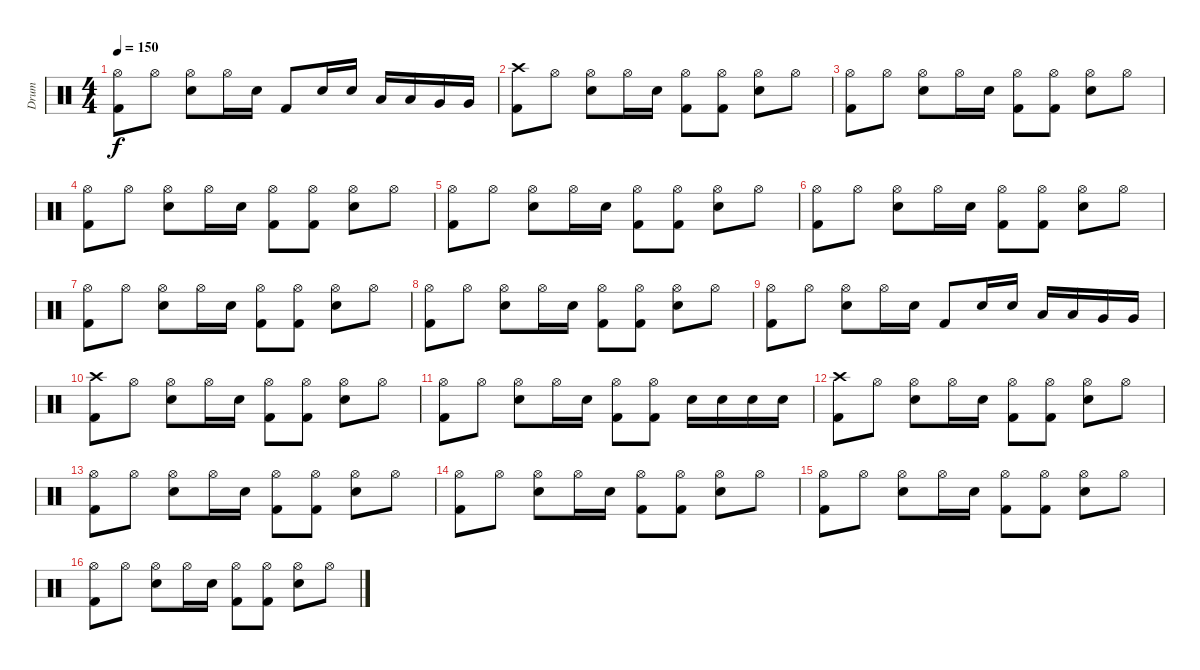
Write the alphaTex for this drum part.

\track ("Drum" "Drum") {instrument percussion}
\staff {score}
\articulation defaults
\ts (4 4)
\tempo 150
\clef neutral
\ks c
("Hi-Hat (open)" "Kick (hit) 2").8{dy f} "Hi-Hat (open)".8 ("Hi-Hat (open)" "Snare (hit) 2").8 "Hi-Hat (open)".16 "Snare (hit) 2".16 "Kick (hit) 2".8 "Snare (hit) 2".16 "Snare (hit) 2".16 "Low Tom (hit)".16 "Low Tom (hit)".16 "Very Low Tom (hit)".16 "Very Low Tom (hit)".16 |
("Crash high (hit)" "Kick (hit) 2").8 "Hi-Hat (open)".8 ("Hi-Hat (open)" "Snare (hit) 2").8 "Hi-Hat (open)".16 "Snare (hit) 2".16 ("Hi-Hat (open)" "Kick (hit) 2").8 ("Hi-Hat (open)" "Kick (hit) 2").8 ("Hi-Hat (open)" "Snare (hit) 2").8 "Hi-Hat (open)".8 |
("Hi-Hat (open)" "Kick (hit) 2").8 "Hi-Hat (open)".8 ("Hi-Hat (open)" "Snare (hit) 2").8 "Hi-Hat (open)".16 "Snare (hit) 2".16 ("Hi-Hat (open)" "Kick (hit) 2").8 ("Hi-Hat (open)" "Kick (hit) 2").8 ("Hi-Hat (open)" "Snare (hit) 2").8 "Hi-Hat (open)".8 |
("Hi-Hat (open)" "Kick (hit) 2").8 "Hi-Hat (open)".8 ("Hi-Hat (open)" "Snare (hit) 2").8 "Hi-Hat (open)".16 "Snare (hit) 2".16 ("Hi-Hat (open)" "Kick (hit) 2").8 ("Hi-Hat (open)" "Kick (hit) 2").8 ("Hi-Hat (open)" "Snare (hit) 2").8 "Hi-Hat (open)".8 |
("Hi-Hat (open)" "Kick (hit) 2").8 "Hi-Hat (open)".8 ("Hi-Hat (open)" "Snare (hit) 2").8 "Hi-Hat (open)".16 "Snare (hit) 2".16 ("Hi-Hat (open)" "Kick (hit) 2").8 ("Hi-Hat (open)" "Kick (hit) 2").8 ("Hi-Hat (open)" "Snare (hit) 2").8 "Hi-Hat (open)".8 |
("Hi-Hat (open)" "Kick (hit) 2").8 "Hi-Hat (open)".8 ("Hi-Hat (open)" "Snare (hit) 2").8 "Hi-Hat (open)".16 "Snare (hit) 2".16 ("Hi-Hat (open)" "Kick (hit) 2").8 ("Hi-Hat (open)" "Kick (hit) 2").8 ("Hi-Hat (open)" "Snare (hit) 2").8 "Hi-Hat (open)".8 |
("Hi-Hat (open)" "Kick (hit) 2").8 "Hi-Hat (open)".8 ("Hi-Hat (open)" "Snare (hit) 2").8 "Hi-Hat (open)".16 "Snare (hit) 2".16 ("Hi-Hat (open)" "Kick (hit) 2").8 ("Hi-Hat (open)" "Kick (hit) 2").8 ("Hi-Hat (open)" "Snare (hit) 2").8 "Hi-Hat (open)".8 |
("Hi-Hat (open)" "Kick (hit) 2").8 "Hi-Hat (open)".8 ("Hi-Hat (open)" "Snare (hit) 2").8 "Hi-Hat (open)".16 "Snare (hit) 2".16 ("Hi-Hat (open)" "Kick (hit) 2").8 ("Hi-Hat (open)" "Kick (hit) 2").8 ("Hi-Hat (open)" "Snare (hit) 2").8 "Hi-Hat (open)".8 |
("Hi-Hat (open)" "Kick (hit) 2").8 "Hi-Hat (open)".8 ("Hi-Hat (open)" "Snare (hit) 2").8 "Hi-Hat (open)".16 "Snare (hit) 2".16 "Kick (hit) 2".8 "Snare (hit) 2".16 "Snare (hit) 2".16 "Low Tom (hit)".16 "Low Tom (hit)".16 "Very Low Tom (hit)".16 "Very Low Tom (hit)".16 |
("Crash high (hit)" "Kick (hit) 2").8 "Hi-Hat (open)".8 ("Hi-Hat (open)" "Snare (hit) 2").8 "Hi-Hat (open)".16 "Snare (hit) 2".16 ("Hi-Hat (open)" "Kick (hit) 2").8 ("Hi-Hat (open)" "Kick (hit) 2").8 ("Hi-Hat (open)" "Snare (hit) 2").8 "Hi-Hat (open)".8 |
("Hi-Hat (open)" "Kick (hit) 2").8 "Hi-Hat (open)".8 ("Hi-Hat (open)" "Snare (hit) 2").8 "Hi-Hat (open)".16 "Snare (hit) 2".16 ("Hi-Hat (open)" "Kick (hit) 2").8 ("Hi-Hat (open)" "Kick (hit) 2").8 "Snare (hit) 2".16 "Snare (hit) 2".16 "Snare (hit) 2".16 "Snare (hit) 2".16 |
("Crash high (hit)" "Kick (hit) 2").8 "Hi-Hat (open)".8 ("Hi-Hat (open)" "Snare (hit) 2").8 "Hi-Hat (open)".16 "Snare (hit) 2".16 ("Hi-Hat (open)" "Kick (hit) 2").8 ("Hi-Hat (open)" "Kick (hit) 2").8 ("Hi-Hat (open)" "Snare (hit) 2").8 "Hi-Hat (open)".8 |
("Hi-Hat (open)" "Kick (hit) 2").8 "Hi-Hat (open)".8 ("Hi-Hat (open)" "Snare (hit) 2").8 "Hi-Hat (open)".16 "Snare (hit) 2".16 ("Hi-Hat (open)" "Kick (hit) 2").8 ("Hi-Hat (open)" "Kick (hit) 2").8 ("Hi-Hat (open)" "Snare (hit) 2").8 "Hi-Hat (open)".8 |
("Hi-Hat (open)" "Kick (hit) 2").8 "Hi-Hat (open)".8 ("Hi-Hat (open)" "Snare (hit) 2").8 "Hi-Hat (open)".16 "Snare (hit) 2".16 ("Hi-Hat (open)" "Kick (hit) 2").8 ("Hi-Hat (open)" "Kick (hit) 2").8 ("Hi-Hat (open)" "Snare (hit) 2").8 "Hi-Hat (open)".8 |
("Hi-Hat (open)" "Kick (hit) 2").8 "Hi-Hat (open)".8 ("Hi-Hat (open)" "Snare (hit) 2").8 "Hi-Hat (open)".16 "Snare (hit) 2".16 ("Hi-Hat (open)" "Kick (hit) 2").8 ("Hi-Hat (open)" "Kick (hit) 2").8 ("Hi-Hat (open)" "Snare (hit) 2").8 "Hi-Hat (open)".8 |
("Hi-Hat (open)" "Kick (hit) 2").8 "Hi-Hat (open)".8 ("Hi-Hat (open)" "Snare (hit) 2").8 "Hi-Hat (open)".16 "Snare (hit) 2".16 ("Hi-Hat (open)" "Kick (hit) 2").8 ("Hi-Hat (open)" "Kick (hit) 2").8 ("Hi-Hat (open)" "Snare (hit) 2").8 "Hi-Hat (open)".8
